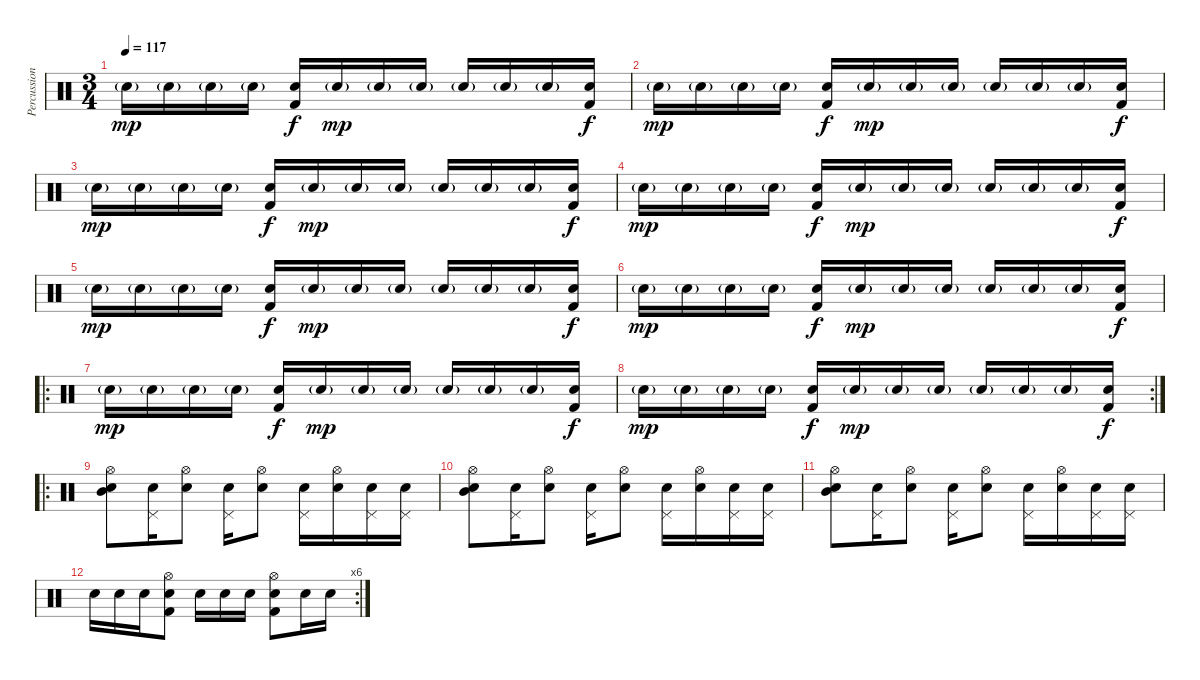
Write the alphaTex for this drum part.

\track ("Percussion" "Percussion") {instrument percussion}
\staff {score}
\articulation defaults
\ts (3 4)
\tempo 117
\clef neutral
\ks c "Electric Snare (hit)"{g}.16{dy mp volume 11} "Electric Snare (hit)"{g}.16 "Electric Snare (hit)"{g}.16 "Electric Snare (hit)"{g}.16
("Electric Snare (hit)" "Kick (hit) 2").16{dy f} "Electric Snare (hit)"{g}.16{dy mp} "Electric Snare (hit)"{g}.16 "Electric Snare (hit)"{g}.16 "Electric Snare (hit)"{g}.16 "Electric Snare (hit)"{g}.16 "Electric Snare (hit)"{g}.16 ("Electric Snare (hit)" "Kick (hit) 2").16{dy f} |
"Electric Snare (hit)"{g}.16{dy mp volume 11} "Electric Snare (hit)"{g}.16 "Electric Snare (hit)"{g}.16 "Electric Snare (hit)"{g}.16 ("Electric Snare (hit)" "Kick (hit) 2").16{dy f} "Electric Snare (hit)"{g}.16{dy mp} "Electric Snare (hit)"{g}.16 "Electric Snare (hit)"{g}.16 "Electric Snare (hit)"{g}.16 "Electric Snare (hit)"{g}.16 "Electric Snare (hit)"{g}.16 ("Electric Snare (hit)" "Kick (hit) 2").16{dy f} |
"Electric Snare (hit)"{g}.16{dy mp volume 11} "Electric Snare (hit)"{g}.16 "Electric Snare (hit)"{g}.16 "Electric Snare (hit)"{g}.16 ("Electric Snare (hit)" "Kick (hit) 2").16{dy f} "Electric Snare (hit)"{g}.16{dy mp} "Electric Snare (hit)"{g}.16 "Electric Snare (hit)"{g}.16 "Electric Snare (hit)"{g}.16 "Electric Snare (hit)"{g}.16 "Electric Snare (hit)"{g}.16 ("Electric Snare (hit)" "Kick (hit) 2").16{dy f} |
"Electric Snare (hit)"{g}.16{dy mp volume 11} "Electric Snare (hit)"{g}.16 "Electric Snare (hit)"{g}.16 "Electric Snare (hit)"{g}.16 ("Electric Snare (hit)" "Kick (hit) 2").16{dy f} "Electric Snare (hit)"{g}.16{dy mp} "Electric Snare (hit)"{g}.16 "Electric Snare (hit)"{g}.16 "Electric Snare (hit)"{g}.16 "Electric Snare (hit)"{g}.16 "Electric Snare (hit)"{g}.16 ("Electric Snare (hit)" "Kick (hit) 2").16{dy f} |
"Electric Snare (hit)"{g}.16{dy mp volume 11} "Electric Snare (hit)"{g}.16 "Electric Snare (hit)"{g}.16 "Electric Snare (hit)"{g}.16 ("Electric Snare (hit)" "Kick (hit) 2").16{dy f} "Electric Snare (hit)"{g}.16{dy mp} "Electric Snare (hit)"{g}.16 "Electric Snare (hit)"{g}.16 "Electric Snare (hit)"{g}.16 "Electric Snare (hit)"{g}.16 "Electric Snare (hit)"{g}.16 ("Electric Snare (hit)" "Kick (hit) 2").16{dy f} |
"Electric Snare (hit)"{g}.16{dy mp volume 11} "Electric Snare (hit)"{g}.16 "Electric Snare (hit)"{g}.16 "Electric Snare (hit)"{g}.16 ("Electric Snare (hit)" "Kick (hit) 2").16{dy f} "Electric Snare (hit)"{g}.16{dy mp} "Electric Snare (hit)"{g}.16 "Electric Snare (hit)"{g}.16 "Electric Snare (hit)"{g}.16 "Electric Snare (hit)"{g}.16 "Electric Snare (hit)"{g}.16 ("Electric Snare (hit)" "Kick (hit) 2").16{dy f} |
\ro "Electric Snare (hit)"{g}.16{dy mp volume 11} "Electric Snare (hit)"{g}.16 "Electric Snare (hit)"{g}.16 "Electric Snare (hit)"{g}.16
("Electric Snare (hit)" "Kick (hit) 2").16{dy f} "Electric Snare (hit)"{g}.16{dy mp} "Electric Snare (hit)"{g}.16 "Electric Snare (hit)"{g}.16 "Electric Snare (hit)"{g}.16 "Electric Snare (hit)"{g}.16 "Electric Snare (hit)"{g}.16 ("Electric Snare (hit)" "Kick (hit) 2").16{dy f} |
\rc 2 "Electric Snare (hit)"{g}.16{dy mp volume 11} "Electric Snare (hit)"{g}.16 "Electric Snare (hit)"{g}.16 "Electric Snare (hit)"{g}.16
("Electric Snare (hit)" "Kick (hit) 2").16{dy f} "Electric Snare (hit)"{g}.16{dy mp} "Electric Snare (hit)"{g}.16 "Electric Snare (hit)"{g}.16 "Electric Snare (hit)"{g}.16 "Electric Snare (hit)"{g}.16 "Electric Snare (hit)"{g}.16 ("Electric Snare (hit)" "Kick (hit) 2").16{dy f} |
\ro
("Mid Tom (hit)" "Hi-Hat (open)" "Snare (hit) 2").8 ("Pedal Hi-Hat (hit)" "Snare (hit) 2").16 ("Hi-Hat (open)" "Electric Snare (hit)").8 ("Pedal Hi-Hat (hit)" "Snare (hit) 2").16 ("Hi-Hat (open)" "Snare (hit) 2").8 ("Pedal Hi-Hat (hit)" "Electric Snare (hit)").16 ("Hi-Hat (open)" "Snare (hit) 2").16 ("Pedal Hi-Hat (hit)" "Snare (hit) 2").16 ("Pedal Hi-Hat (hit)" "Snare (hit) 2").16 |
("Mid Tom (hit)" "Hi-Hat (open)" "Snare (hit) 2").8 ("Pedal Hi-Hat (hit)" "Snare (hit) 2").16 ("Hi-Hat (open)" "Electric Snare (hit)").8 ("Pedal Hi-Hat (hit)" "Snare (hit) 2").16 ("Hi-Hat (open)" "Snare (hit) 2").8 ("Pedal Hi-Hat (hit)" "Electric Snare (hit)").16 ("Hi-Hat (open)" "Snare (hit) 2").16 ("Pedal Hi-Hat (hit)" "Snare (hit) 2").16 ("Pedal Hi-Hat (hit)" "Snare (hit) 2").16 |
("Mid Tom (hit)" "Hi-Hat (open)" "Snare (hit) 2").8 ("Pedal Hi-Hat (hit)" "Snare (hit) 2").16 ("Hi-Hat (open)" "Electric Snare (hit)").8 ("Pedal Hi-Hat (hit)" "Snare (hit) 2").16 ("Hi-Hat (open)" "Snare (hit) 2").8 ("Pedal Hi-Hat (hit)" "Electric Snare (hit)").16 ("Hi-Hat (open)" "Snare (hit) 2").16 ("Pedal Hi-Hat (hit)" "Snare (hit) 2").16 ("Pedal Hi-Hat (hit)" "Snare (hit) 2").16 |
\rc 6 "Electric Snare (hit)".16 "Electric Snare (hit)".16 "Electric Snare (hit)".16
("Hi-Hat (open)" "Electric Snare (hit)" "Kick (hit) 2").8 "Electric Snare (hit)".16 "Electric Snare (hit)".16 "Electric Snare (hit)".16 ("Hi-Hat (open)" "Electric Snare (hit)" "Kick (hit) 2").8 "Electric Snare (hit)".16 "Electric Snare (hit)".16
